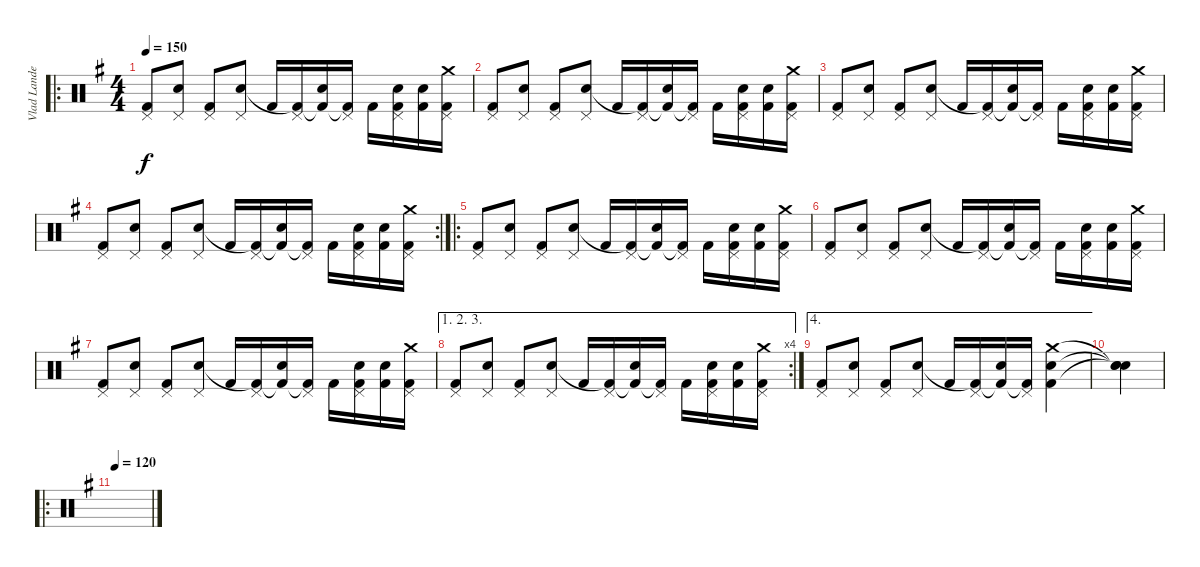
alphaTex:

\track ("Vlad Landeros" "Vlad Lande") {instrument percussion}
\staff {score}
\articulation defaults
\ro
\ts (4 4)
\tempo 150
\clef neutral
\ks eminor
("Pedal Hi-Hat (hit)" "Kick (hit) 2").8{dy f} ("Pedal Hi-Hat (hit)" "Snare (hit) 2").8 ("Pedal Hi-Hat (hit)" "Kick (hit) 2").8 ("Pedal Hi-Hat (hit)" "Snare (hit) 2").8 "Kick (hit) 2".16 ("Pedal Hi-Hat (hit)" "Kick (hit) 2"{t}).16 ("Snare (hit) 2" "Kick (hit) 2"{t}).16 ("Pedal Hi-Hat (hit)" "Kick (hit) 2"{t}).16 "Kick (hit) 2".16 ("Pedal Hi-Hat (hit)" "Snare (hit) 2" "Kick (hit) 2").16 ("Snare (hit) 2" "Kick (hit) 2").16 ("Crash medium (hit)" "Pedal Hi-Hat (hit)" "Kick (hit) 2").16 |
("Pedal Hi-Hat (hit)" "Kick (hit) 2").8 ("Pedal Hi-Hat (hit)" "Snare (hit) 2").8 ("Pedal Hi-Hat (hit)" "Kick (hit) 2").8 ("Pedal Hi-Hat (hit)" "Snare (hit) 2").8 "Kick (hit) 2".16 ("Pedal Hi-Hat (hit)" "Kick (hit) 2"{t}).16 ("Snare (hit) 2" "Kick (hit) 2"{t}).16 ("Pedal Hi-Hat (hit)" "Kick (hit) 2"{t}).16 "Kick (hit) 2".16 ("Pedal Hi-Hat (hit)" "Snare (hit) 2" "Kick (hit) 2").16 ("Snare (hit) 2" "Kick (hit) 2").16 ("Crash medium (hit)" "Pedal Hi-Hat (hit)" "Kick (hit) 2").16 |
("Pedal Hi-Hat (hit)" "Kick (hit) 2").8 ("Pedal Hi-Hat (hit)" "Snare (hit) 2").8 ("Pedal Hi-Hat (hit)" "Kick (hit) 2").8 ("Pedal Hi-Hat (hit)" "Snare (hit) 2").8 "Kick (hit) 2".16 ("Pedal Hi-Hat (hit)" "Kick (hit) 2"{t}).16 ("Snare (hit) 2" "Kick (hit) 2"{t}).16 ("Pedal Hi-Hat (hit)" "Kick (hit) 2"{t}).16 "Kick (hit) 2".16 ("Pedal Hi-Hat (hit)" "Snare (hit) 2" "Kick (hit) 2").16 ("Snare (hit) 2" "Kick (hit) 2").16 ("Crash medium (hit)" "Pedal Hi-Hat (hit)" "Kick (hit) 2").16 |
\rc 2
("Pedal Hi-Hat (hit)" "Kick (hit) 2").8 ("Pedal Hi-Hat (hit)" "Snare (hit) 2").8 ("Pedal Hi-Hat (hit)" "Kick (hit) 2").8 ("Pedal Hi-Hat (hit)" "Snare (hit) 2").8 "Kick (hit) 2".16 ("Pedal Hi-Hat (hit)" "Kick (hit) 2"{t}).16 ("Snare (hit) 2" "Kick (hit) 2"{t}).16 ("Pedal Hi-Hat (hit)" "Kick (hit) 2"{t}).16 "Kick (hit) 2".16 ("Pedal Hi-Hat (hit)" "Snare (hit) 2" "Kick (hit) 2").16 ("Snare (hit) 2" "Kick (hit) 2").16 ("Crash medium (hit)" "Pedal Hi-Hat (hit)" "Kick (hit) 2").16 |
\ro
("Pedal Hi-Hat (hit)" "Kick (hit) 2").8 ("Pedal Hi-Hat (hit)" "Snare (hit) 2").8 ("Pedal Hi-Hat (hit)" "Kick (hit) 2").8 ("Pedal Hi-Hat (hit)" "Snare (hit) 2").8 "Kick (hit) 2".16 ("Pedal Hi-Hat (hit)" "Kick (hit) 2"{t}).16 ("Snare (hit) 2" "Kick (hit) 2"{t}).16 ("Pedal Hi-Hat (hit)" "Kick (hit) 2"{t}).16 "Kick (hit) 2".16 ("Pedal Hi-Hat (hit)" "Snare (hit) 2" "Kick (hit) 2").16 ("Snare (hit) 2" "Kick (hit) 2").16 ("Crash medium (hit)" "Pedal Hi-Hat (hit)" "Kick (hit) 2").16 |
("Pedal Hi-Hat (hit)" "Kick (hit) 2").8 ("Pedal Hi-Hat (hit)" "Snare (hit) 2").8 ("Pedal Hi-Hat (hit)" "Kick (hit) 2").8 ("Pedal Hi-Hat (hit)" "Snare (hit) 2").8 "Kick (hit) 2".16 ("Pedal Hi-Hat (hit)" "Kick (hit) 2"{t}).16 ("Snare (hit) 2" "Kick (hit) 2"{t}).16 ("Pedal Hi-Hat (hit)" "Kick (hit) 2"{t}).16 "Kick (hit) 2".16 ("Pedal Hi-Hat (hit)" "Snare (hit) 2" "Kick (hit) 2").16 ("Snare (hit) 2" "Kick (hit) 2").16 ("Crash medium (hit)" "Pedal Hi-Hat (hit)" "Kick (hit) 2").16 |
("Pedal Hi-Hat (hit)" "Kick (hit) 2").8 ("Pedal Hi-Hat (hit)" "Snare (hit) 2").8 ("Pedal Hi-Hat (hit)" "Kick (hit) 2").8 ("Pedal Hi-Hat (hit)" "Snare (hit) 2").8 "Kick (hit) 2".16 ("Pedal Hi-Hat (hit)" "Kick (hit) 2"{t}).16 ("Snare (hit) 2" "Kick (hit) 2"{t}).16 ("Pedal Hi-Hat (hit)" "Kick (hit) 2"{t}).16 "Kick (hit) 2".16 ("Pedal Hi-Hat (hit)" "Snare (hit) 2" "Kick (hit) 2").16 ("Snare (hit) 2" "Kick (hit) 2").16 ("Crash medium (hit)" "Pedal Hi-Hat (hit)" "Kick (hit) 2").16 |
\ae (1 2 3)
\rc 4
("Pedal Hi-Hat (hit)" "Kick (hit) 2").8 ("Pedal Hi-Hat (hit)" "Snare (hit) 2").8 ("Pedal Hi-Hat (hit)" "Kick (hit) 2").8 ("Pedal Hi-Hat (hit)" "Snare (hit) 2").8 "Kick (hit) 2".16 ("Pedal Hi-Hat (hit)" "Kick (hit) 2"{t}).16 ("Snare (hit) 2" "Kick (hit) 2"{t}).16 ("Pedal Hi-Hat (hit)" "Kick (hit) 2"{t}).16 "Kick (hit) 2".16 ("Pedal Hi-Hat (hit)" "Snare (hit) 2" "Kick (hit) 2").16 ("Snare (hit) 2" "Kick (hit) 2").16 ("Crash medium (hit)" "Pedal Hi-Hat (hit)" "Kick (hit) 2").16 |
\ae 4
("Pedal Hi-Hat (hit)" "Kick (hit) 2").8 ("Pedal Hi-Hat (hit)" "Snare (hit) 2").8 ("Pedal Hi-Hat (hit)" "Kick (hit) 2").8 ("Pedal Hi-Hat (hit)" "Snare (hit) 2").8 "Kick (hit) 2".16 ("Pedal Hi-Hat (hit)" "Kick (hit) 2"{t}).16 ("Snare (hit) 2" "Kick (hit) 2"{t}).16 ("Pedal Hi-Hat (hit)" "Kick (hit) 2"{t}).16 ("Kick (hit) 2" "Crash medium (hit)" "Snare (hit) 2").4 |
("Snare (hit)"{t} "Snare (hit)"{t} "Snare (hit)"{t}).4 |
\ro
\tempo 120
